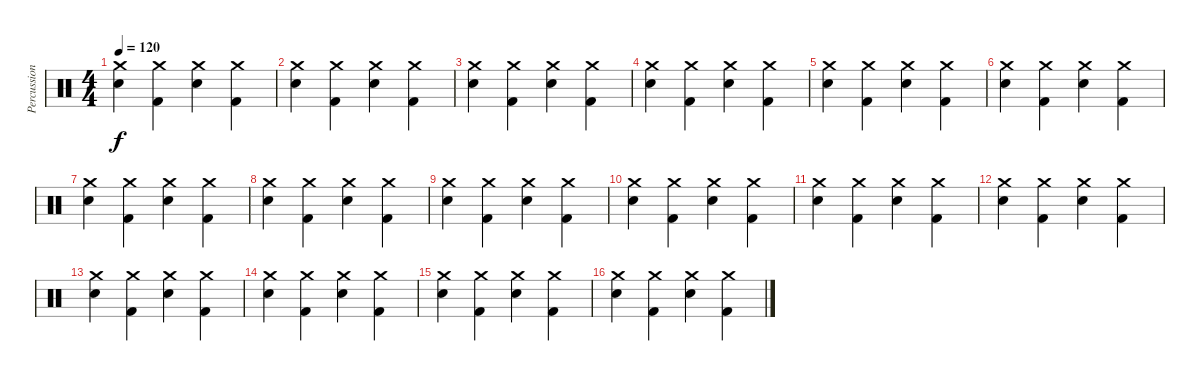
\track ("Percussion" "Percussion") {instrument percussion}
\staff {score}
\articulation defaults
\ts (4 4)
\tempo 120
\clef neutral
\ks c
("Crash medium (hit)" "Snare (hit) 2").4{dy f} ("Crash medium (hit)" "Kick (hit) 2").4 ("Crash medium (hit)" "Snare (hit) 2").4 ("Crash medium (hit)" "Kick (hit) 2").4 |
("Crash medium (hit)" "Snare (hit) 2").4 ("Crash medium (hit)" "Kick (hit) 2").4 ("Crash medium (hit)" "Snare (hit) 2").4 ("Crash medium (hit)" "Kick (hit) 2").4 |
("Crash medium (hit)" "Snare (hit) 2").4 ("Crash medium (hit)" "Kick (hit) 2").4 ("Crash medium (hit)" "Snare (hit) 2").4 ("Crash medium (hit)" "Kick (hit) 2").4 |
("Crash medium (hit)" "Snare (hit) 2").4 ("Crash medium (hit)" "Kick (hit) 2").4 ("Crash medium (hit)" "Snare (hit) 2").4 ("Crash medium (hit)" "Kick (hit) 2").4 |
("Crash medium (hit)" "Snare (hit) 2").4 ("Crash medium (hit)" "Kick (hit) 2").4 ("Crash medium (hit)" "Snare (hit) 2").4 ("Crash medium (hit)" "Kick (hit) 2").4 |
("Crash medium (hit)" "Snare (hit) 2").4 ("Crash medium (hit)" "Kick (hit) 2").4 ("Crash medium (hit)" "Snare (hit) 2").4 ("Crash medium (hit)" "Kick (hit) 2").4 |
("Crash medium (hit)" "Snare (hit) 2").4 ("Crash medium (hit)" "Kick (hit) 2").4 ("Crash medium (hit)" "Snare (hit) 2").4 ("Crash medium (hit)" "Kick (hit) 2").4 |
("Crash medium (hit)" "Snare (hit) 2").4 ("Crash medium (hit)" "Kick (hit) 2").4 ("Crash medium (hit)" "Snare (hit) 2").4 ("Crash medium (hit)" "Kick (hit) 2").4 |
("Crash medium (hit)" "Snare (hit) 2").4 ("Crash medium (hit)" "Kick (hit) 2").4 ("Crash medium (hit)" "Snare (hit) 2").4 ("Crash medium (hit)" "Kick (hit) 2").4 |
("Crash medium (hit)" "Snare (hit) 2").4 ("Crash medium (hit)" "Kick (hit) 2").4 ("Crash medium (hit)" "Snare (hit) 2").4 ("Crash medium (hit)" "Kick (hit) 2").4 |
("Crash medium (hit)" "Snare (hit) 2").4 ("Crash medium (hit)" "Kick (hit) 2").4 ("Crash medium (hit)" "Snare (hit) 2").4 ("Crash medium (hit)" "Kick (hit) 2").4 |
("Crash medium (hit)" "Snare (hit) 2").4 ("Crash medium (hit)" "Kick (hit) 2").4 ("Crash medium (hit)" "Snare (hit) 2").4 ("Crash medium (hit)" "Kick (hit) 2").4 |
("Crash medium (hit)" "Snare (hit) 2").4 ("Crash medium (hit)" "Kick (hit) 2").4 ("Crash medium (hit)" "Snare (hit) 2").4 ("Crash medium (hit)" "Kick (hit) 2").4 |
("Crash medium (hit)" "Snare (hit) 2").4 ("Crash medium (hit)" "Kick (hit) 2").4 ("Crash medium (hit)" "Snare (hit) 2").4 ("Crash medium (hit)" "Kick (hit) 2").4 |
("Crash medium (hit)" "Snare (hit) 2").4 ("Crash medium (hit)" "Kick (hit) 2").4 ("Crash medium (hit)" "Snare (hit) 2").4 ("Crash medium (hit)" "Kick (hit) 2").4 |
("Crash medium (hit)" "Snare (hit) 2").4 ("Crash medium (hit)" "Kick (hit) 2").4 ("Crash medium (hit)" "Snare (hit) 2").4 ("Crash medium (hit)" "Kick (hit) 2").4
